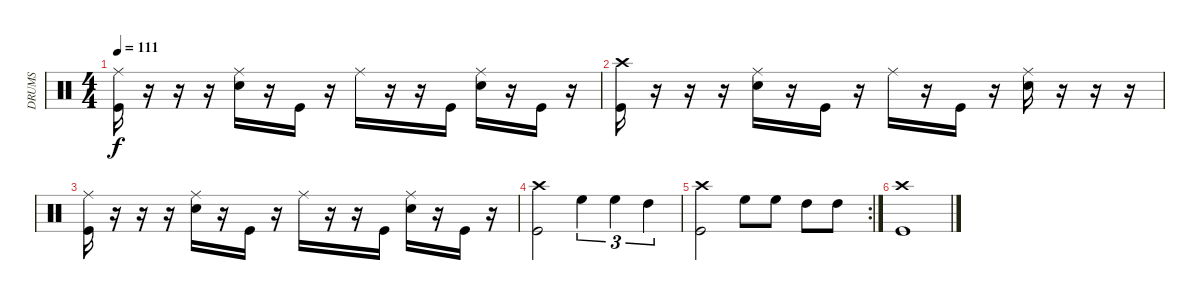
\track ("DRUMS" "DRUMS") {instrument percussion}
\staff {score}
\articulation defaults
\ts (4 4)
\tempo 111
\clef neutral
\ks c
("Ride (middle)" "Kick (hit)").16{dy f} r.16 r.16 r.16 ("Ride (middle)" "Snare (hit) 2").16 r.16 "Kick (hit)".16 r.16 "Ride (middle)".16 r.16 r.16 "Kick (hit)".16 ("Ride (middle)" "Snare (hit) 2").16 r.16 "Kick (hit)".16 r.16 |
("Crash high (hit)" "Kick (hit)").16 r.16 r.16 r.16 ("Ride (middle)" "Snare (hit) 2").16 r.16 "Kick (hit)".16 r.16 "Ride (middle)".16 r.16 "Kick (hit)".16 r.16 ("Ride (middle)" "Snare (hit) 2").16 r.16 r.16 r.16 |
("Ride (middle)" "Kick (hit)").16 r.16 r.16 r.16 ("Ride (middle)" "Snare (hit) 2").16 r.16 "Kick (hit)".16 r.16 "Ride (middle)".16 r.16 r.16 "Kick (hit)".16 ("Ride (middle)" "Snare (hit) 2").16 r.16 "Kick (hit)".16 r.16 |
("Kick (hit)" "Crash high (hit)").2 "High Floor Tom (hit)".4{tu (3 2)} "High Floor Tom (hit)".4{tu (3 2)} "High Tom (hit)".4{tu (3 2)} |
\rc 2
("Kick (hit)" "Crash high (hit)").2 "High Floor Tom (hit)".8 "High Floor Tom (hit)".8 "High Tom (hit)".8 "High Tom (hit)".8 |
("Crash high (hit)" "Kick (hit)").1
